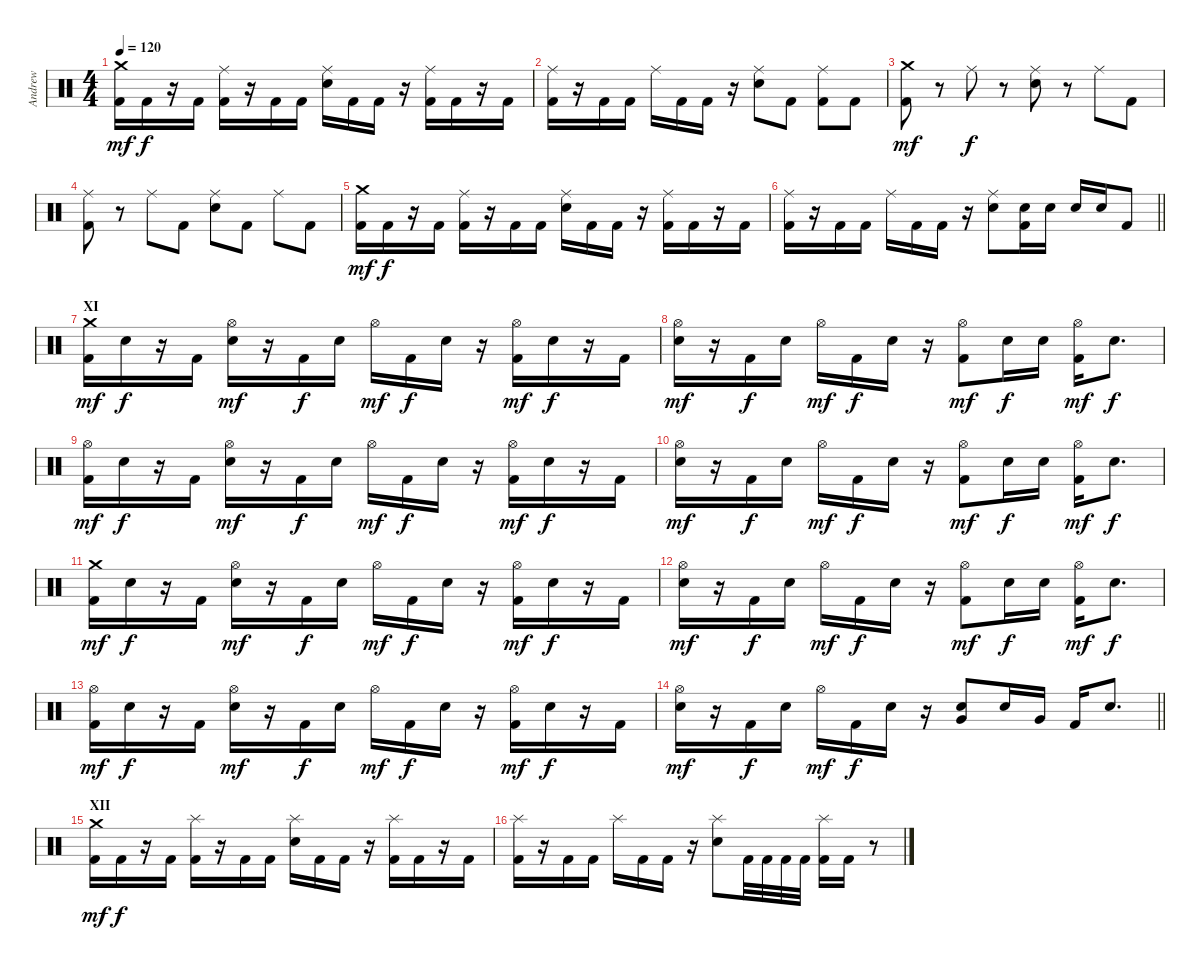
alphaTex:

\track ("Andrew" "Andrew") {instrument percussion}
\staff {score}
\articulation defaults
\ts (4 4)
\tempo 120
\clef neutral
\ks c
("Crash medium (hit)" "Kick (hit) 2").16{dy mf} "Kick (hit) 2".16{dy f} r.16 "Kick (hit) 2".16 ("Ride (middle)" "Kick (hit) 2").16 r.16 "Kick (hit) 2".16 "Kick (hit) 2".16 ("Ride (middle)" "Electric Snare (hit)").16 "Kick (hit) 2".16 "Kick (hit) 2".16 r.16 ("Ride (middle)" "Kick (hit) 2").16 "Kick (hit) 2".16 r.16 "Kick (hit) 2".16 |
("Ride (middle)" "Kick (hit) 2").16 r.16 "Kick (hit) 2".16 "Kick (hit) 2".16 "Ride (middle)".16 "Kick (hit) 2".16 "Kick (hit) 2".16 r.16 ("Ride (middle)" "Electric Snare (hit)").8 "Kick (hit) 2".8 ("Ride (middle)" "Kick (hit) 2").8 "Kick (hit) 2".8 |
("Crash medium (hit)" "Kick (hit) 2").8{dy mf} r.8 "Ride (middle)".8{dy f} r.8 ("Ride (middle)" "Electric Snare (hit)").8 r.8 "Ride (middle)".8 "Kick (hit) 2".8 |
("Ride (middle)" "Kick (hit) 2").8 r.8 "Ride (middle)".8 "Kick (hit) 2".8 ("Ride (middle)" "Electric Snare (hit)").8 "Kick (hit) 2".8 "Ride (middle)".8 "Kick (hit) 2".8 |
("Crash medium (hit)" "Kick (hit) 2").16{dy mf} "Kick (hit) 2".16{dy f} r.16 "Kick (hit) 2".16 ("Ride (middle)" "Kick (hit) 2").16 r.16 "Kick (hit) 2".16 "Kick (hit) 2".16 ("Ride (middle)" "Electric Snare (hit)").16 "Kick (hit) 2".16 "Kick (hit) 2".16 r.16 ("Ride (middle)" "Kick (hit) 2").16 "Kick (hit) 2".16 r.16 "Kick (hit) 2".16 |
\barLineRight lightlight
("Ride (middle)" "Kick (hit) 2").16 r.16 "Kick (hit) 2".16 "Kick (hit) 2".16 "Ride (middle)".16 "Kick (hit) 2".16 "Kick (hit) 2".16 r.16 ("Ride (middle)" "Electric Snare (hit)").8 ("Electric Snare (hit)" "Kick (hit) 2").16 "Electric Snare (hit)".16 "Electric Snare (hit)".16 "Electric Snare (hit)".16 "Kick (hit) 2".8 |
\section ("" "XI")
("Crash medium (hit)" "Kick (hit) 2").16{dy mf} "Electric Snare (hit)".16{dy f} r.16 "Kick (hit) 2".16 ("Hi-Hat (open)" "Electric Snare (hit)").16{dy mf} r.16 "Kick (hit) 2".16{dy f} "Electric Snare (hit)".16 "Hi-Hat (open)".16{dy mf} "Kick (hit) 2".16{dy f} "Electric Snare (hit)".16 r.16 ("Hi-Hat (open)" "Kick (hit) 2").16{dy mf} "Electric Snare (hit)".16{dy f} r.16 "Kick (hit) 2".16 |
("Hi-Hat (open)" "Electric Snare (hit)").16{dy mf} r.16 "Kick (hit) 2".16{dy f} "Electric Snare (hit)".16 "Hi-Hat (open)".16{dy mf} "Kick (hit) 2".16{dy f} "Electric Snare (hit)".16 r.16 ("Hi-Hat (open)" "Kick (hit) 2").8{dy mf} "Electric Snare (hit)".16{dy f} "Electric Snare (hit)".16 ("Hi-Hat (open)" "Kick (hit) 2").16{dy mf} "Electric Snare (hit)".8{d dy f} |
("Hi-Hat (open)" "Kick (hit) 2").16{dy mf} "Electric Snare (hit)".16{dy f} r.16 "Kick (hit) 2".16 ("Hi-Hat (open)" "Electric Snare (hit)").16{dy mf} r.16 "Kick (hit) 2".16{dy f} "Electric Snare (hit)".16 "Hi-Hat (open)".16{dy mf} "Kick (hit) 2".16{dy f} "Electric Snare (hit)".16 r.16 ("Hi-Hat (open)" "Kick (hit) 2").16{dy mf} "Electric Snare (hit)".16{dy f} r.16 "Kick (hit) 2".16 |
("Hi-Hat (open)" "Electric Snare (hit)").16{dy mf} r.16 "Kick (hit) 2".16{dy f} "Electric Snare (hit)".16 "Hi-Hat (open)".16{dy mf} "Kick (hit) 2".16{dy f} "Electric Snare (hit)".16 r.16 ("Hi-Hat (open)" "Kick (hit) 2").8{dy mf} "Electric Snare (hit)".16{dy f} "Electric Snare (hit)".16 ("Hi-Hat (open)" "Kick (hit) 2").16{dy mf} "Electric Snare (hit)".8{d dy f} |
("Crash medium (hit)" "Kick (hit) 2").16{dy mf} "Electric Snare (hit)".16{dy f} r.16 "Kick (hit) 2".16 ("Hi-Hat (open)" "Electric Snare (hit)").16{dy mf} r.16 "Kick (hit) 2".16{dy f} "Electric Snare (hit)".16 "Hi-Hat (open)".16{dy mf} "Kick (hit) 2".16{dy f} "Electric Snare (hit)".16 r.16 ("Hi-Hat (open)" "Kick (hit) 2").16{dy mf} "Electric Snare (hit)".16{dy f} r.16 "Kick (hit) 2".16 |
("Hi-Hat (open)" "Electric Snare (hit)").16{dy mf} r.16 "Kick (hit) 2".16{dy f} "Electric Snare (hit)".16 "Hi-Hat (open)".16{dy mf} "Kick (hit) 2".16{dy f} "Electric Snare (hit)".16 r.16 ("Hi-Hat (open)" "Kick (hit) 2").8{dy mf} "Electric Snare (hit)".16{dy f} "Electric Snare (hit)".16 ("Hi-Hat (open)" "Kick (hit) 2").16{dy mf} "Electric Snare (hit)".8{d dy f} |
("Hi-Hat (open)" "Kick (hit) 2").16{dy mf} "Electric Snare (hit)".16{dy f} r.16 "Kick (hit) 2".16 ("Hi-Hat (open)" "Electric Snare (hit)").16{dy mf} r.16 "Kick (hit) 2".16{dy f} "Electric Snare (hit)".16 "Hi-Hat (open)".16{dy mf} "Kick (hit) 2".16{dy f} "Electric Snare (hit)".16 r.16 ("Hi-Hat (open)" "Kick (hit) 2").16{dy mf} "Electric Snare (hit)".16{dy f} r.16 "Kick (hit) 2".16 |
\barLineRight lightlight
("Hi-Hat (open)" "Electric Snare (hit)").16{dy mf} r.16 "Kick (hit) 2".16{dy f} "Electric Snare (hit)".16 "Hi-Hat (open)".16{dy mf} "Kick (hit) 2".16{dy f} "Electric Snare (hit)".16 r.16 ("Electric Snare (hit)" "Very Low Tom (hit)").8 "Electric Snare (hit)".16 "Very Low Tom (hit)".16 "Kick (hit) 2".16 "Electric Snare (hit)".8{d} |
\section ("" "XII")
("Crash medium (hit)" "Kick (hit) 2").16{dy mf} "Kick (hit) 2".16{dy f} r.16 "Kick (hit) 2".16 ("Splash (hit)" "Kick (hit) 2").16 r.16 "Kick (hit) 2".16 "Kick (hit) 2".16 ("Splash (hit)" "Electric Snare (hit)").16 "Kick (hit) 2".16 "Kick (hit) 2".16 r.16 ("Splash (hit)" "Kick (hit) 2").16 "Kick (hit) 2".16 r.16 "Kick (hit) 2".16 |
("Splash (hit)" "Kick (hit) 2").16 r.16 "Kick (hit) 2".16 "Kick (hit) 2".16 "Splash (hit)".16 "Kick (hit) 2".16 "Kick (hit) 2".16 r.16 ("Splash (hit)" "Electric Snare (hit)").8 "Kick (hit) 2".32 "Kick (hit) 2".32 "Kick (hit) 2".32 "Kick (hit) 2".32 ("Splash (hit)" "Kick (hit) 2").16 "Kick (hit) 2".16 r.8
